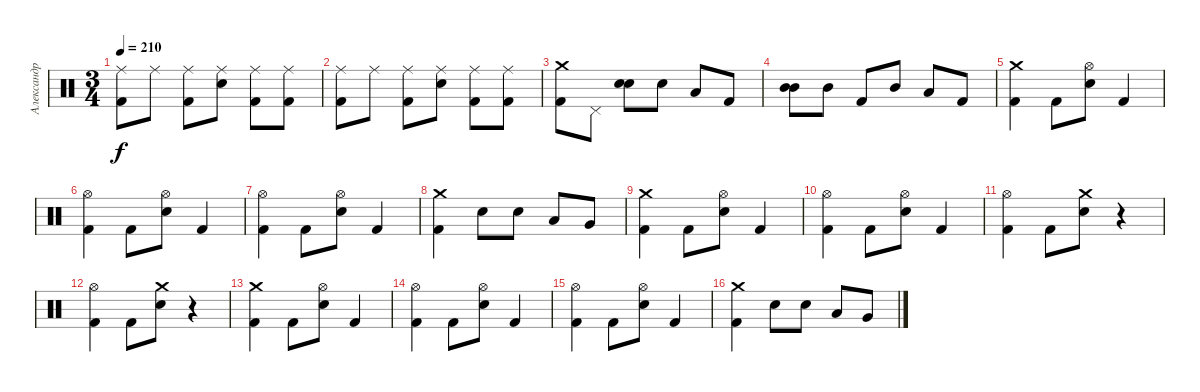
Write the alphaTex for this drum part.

\track ("Александр Манякин" "Александр ") {instrument percussion}
\staff {score}
\articulation defaults
\ts (3 4)
\tempo 210
\clef neutral
\ks c
("Ride (middle)" "Kick (hit) 2").8{dy f} "Ride (middle)".8 ("Ride (middle)" "Kick (hit) 2").8 ("Ride (middle)" "Snare (hit) 2").8 ("Ride (middle)" "Kick (hit) 2").8 ("Ride (middle)" "Kick (hit) 2").8 |
("Ride (middle)" "Kick (hit) 2").8 "Ride (middle)".8 ("Ride (middle)" "Kick (hit) 2").8 ("Ride (middle)" "Snare (hit) 2").8 ("Ride (middle)" "Kick (hit) 2").8 ("Ride (middle)" "Kick (hit) 2").8 |
("Crash medium (hit)" "Kick (hit) 2").8 "Pedal Hi-Hat (hit)".8 ("Snare (hit) 2" "Snare (hit) 2").8{bd 60} "Snare (hit) 2".8 "Low Tom (hit)".8 "Kick (hit) 2".8 |
("Mid Tom (hit)" "Mid Tom (hit)").8{bd 60} "Mid Tom (hit)".8 "Kick (hit) 2".8 "Mid Tom (hit)".8 "Low Tom (hit)".8 "Kick (hit) 2".8 |
("Crash medium (hit)" "Kick (hit) 2").4 "Kick (hit) 2".8 ("Hi-Hat (open)" "Snare (hit) 2").8 "Kick (hit) 2".4 |
("Hi-Hat (open)" "Kick (hit) 2").4 "Kick (hit) 2".8 ("Hi-Hat (open)" "Snare (hit) 2").8 "Kick (hit) 2".4 |
("Hi-Hat (open)" "Kick (hit) 2").4 "Kick (hit) 2".8 ("Hi-Hat (open)" "Snare (hit) 2").8 "Kick (hit) 2".4 |
("Crash medium (hit)" "Kick (hit) 2").4 "Snare (hit) 2".8 "Snare (hit) 2".8 "Low Tom (hit)".8 "Very Low Tom (hit)".8 |
("Crash medium (hit)" "Kick (hit) 2").4 "Kick (hit) 2".8 ("Hi-Hat (open)" "Snare (hit) 2").8 "Kick (hit) 2".4 |
("Hi-Hat (open)" "Kick (hit) 2").4 "Kick (hit) 2".8 ("Hi-Hat (open)" "Snare (hit) 2").8 "Kick (hit) 2".4 |
("Hi-Hat (open)" "Kick (hit) 2").4 "Kick (hit) 2".8 ("Crash medium (hit)" "Snare (hit) 2").8 r.4 |
("Hi-Hat (open)" "Kick (hit) 2").4 "Kick (hit) 2".8 ("Crash medium (hit)" "Snare (hit) 2").8 r.4 |
("Crash medium (hit)" "Kick (hit) 2").4 "Kick (hit) 2".8 ("Hi-Hat (open)" "Snare (hit) 2").8 "Kick (hit) 2".4 |
("Hi-Hat (open)" "Kick (hit) 2").4 "Kick (hit) 2".8 ("Hi-Hat (open)" "Snare (hit) 2").8 "Kick (hit) 2".4 |
("Hi-Hat (open)" "Kick (hit) 2").4 "Kick (hit) 2".8 ("Hi-Hat (open)" "Snare (hit) 2").8 "Kick (hit) 2".4 |
("Crash medium (hit)" "Kick (hit) 2").4 "Snare (hit) 2".8 "Snare (hit) 2".8 "Low Tom (hit)".8 "Very Low Tom (hit)".8
